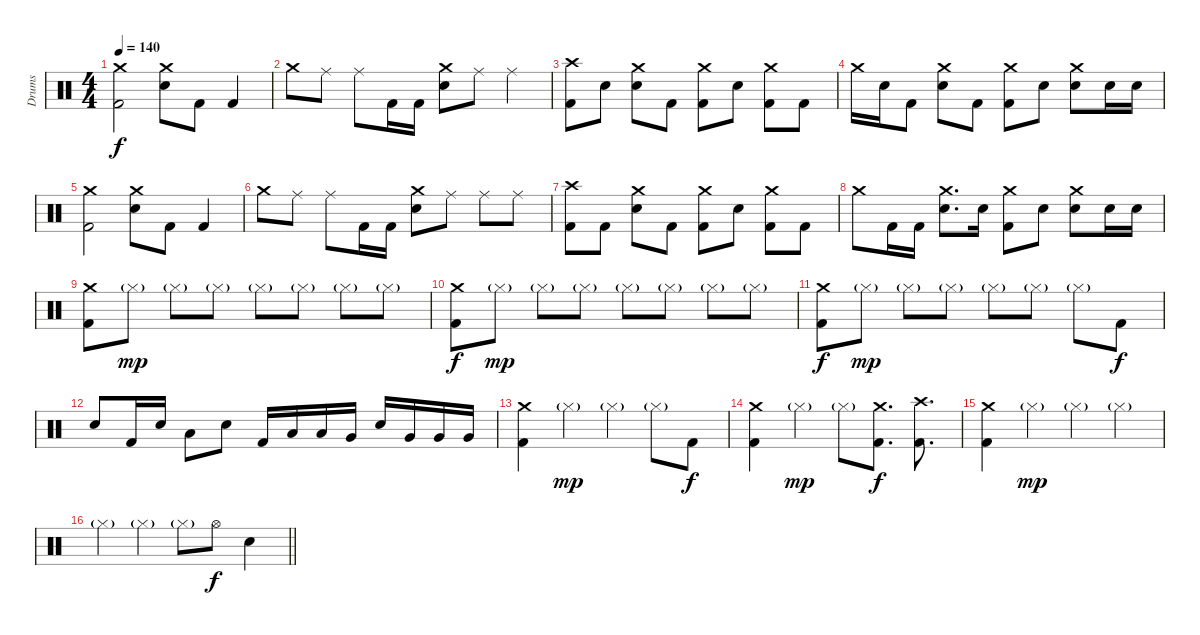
\track ("Drums" "Drums") {instrument percussion}
\staff {score}
\articulation defaults
\ts (4 4)
\tempo 140
\clef neutral
\ks c
("Crash medium (hit)" "Kick (hit) 2").2{dy f} ("Crash medium (hit)" "Electric Snare (hit)").8 "Kick (hit) 2".8 "Kick (hit) 2".4 |
"Crash medium (hit)".8 "Ride (middle)".8 "Ride (middle)".8 "Kick (hit) 2".16 "Kick (hit) 2".16 ("Crash medium (hit)" "Electric Snare (hit)").8 "Ride (middle)".8 "Ride (middle)".4 |
("Crash high (hit)" "Kick (hit) 2").8 "Electric Snare (hit)".8 ("Crash medium (hit)" "Electric Snare (hit)").8 "Kick (hit) 2".8 ("Crash medium (hit)" "Kick (hit) 2").8 "Electric Snare (hit)".8 ("Crash medium (hit)" "Kick (hit) 2").8 "Kick (hit) 2".8 |
"Crash medium (hit)".16 "Electric Snare (hit)".16 "Kick (hit) 2".8 ("Crash medium (hit)" "Electric Snare (hit)").8 "Kick (hit) 2".8 ("Crash medium (hit)" "Kick (hit) 2").8 "Electric Snare (hit)".8 ("Crash medium (hit)" "Electric Snare (hit)").8 "Electric Snare (hit)".16 "Electric Snare (hit)".16 |
("Crash medium (hit)" "Kick (hit) 2").2 ("Crash medium (hit)" "Electric Snare (hit)").8 "Kick (hit) 2".8 "Kick (hit) 2".4 |
"Crash medium (hit)".8 "Ride (middle)".8 "Ride (middle)".8 "Kick (hit) 2".16 "Kick (hit) 2".16 ("Crash medium (hit)" "Electric Snare (hit)").8 "Ride (middle)".8 "Ride (middle)".8 "Ride (middle)".8 |
("Crash high (hit)" "Kick (hit) 2").8 "Kick (hit) 2".8 ("Crash medium (hit)" "Electric Snare (hit)").8 "Kick (hit) 2".8 ("Crash medium (hit)" "Kick (hit) 2").8 "Electric Snare (hit)".8 ("Crash medium (hit)" "Kick (hit) 2").8 "Kick (hit) 2".8 |
"Crash medium (hit)".8 "Kick (hit) 2".16 "Kick (hit) 2".16 ("Crash medium (hit)" "Electric Snare (hit)").8{d} "Electric Snare (hit)".16 ("Crash medium (hit)" "Kick (hit) 2").8 "Electric Snare (hit)".8 ("Crash medium (hit)" "Electric Snare (hit)").8 "Electric Snare (hit)".16 "Electric Snare (hit)".16 |
("Crash medium (hit)" "Kick (hit) 2").8 "Hi-Hat (closed)"{g}.8{dy mp} "Hi-Hat (closed)"{g}.8 "Hi-Hat (closed)"{g}.8 "Hi-Hat (closed)"{g}.8 "Hi-Hat (closed)"{g}.8 "Hi-Hat (closed)"{g}.8 "Hi-Hat (closed)"{g}.8 |
("Crash medium (hit)" "Kick (hit) 2").8{dy f} "Hi-Hat (closed)"{g}.8{dy mp} "Hi-Hat (closed)"{g}.8 "Hi-Hat (closed)"{g}.8 "Hi-Hat (closed)"{g}.8 "Hi-Hat (closed)"{g}.8 "Hi-Hat (closed)"{g}.8 "Hi-Hat (closed)"{g}.8 |
("Crash medium (hit)" "Kick (hit) 2").8{dy f} "Hi-Hat (closed)"{g}.8{dy mp} "Hi-Hat (closed)"{g}.8 "Hi-Hat (closed)"{g}.8 "Hi-Hat (closed)"{g}.8 "Hi-Hat (closed)"{g}.8 "Hi-Hat (closed)"{g}.8 "Kick (hit) 2".8{dy f} |
"Electric Snare (hit)".8 "Kick (hit) 2".16 "Electric Snare (hit)".16 "Low Tom (hit)".8 "Electric Snare (hit)".8 "Kick (hit) 2".16 "Low Tom (hit)".16 "Low Tom (hit)".16 "Very Low Tom (hit)".16 "Electric Snare (hit)".16 "Very Low Tom (hit)".16 "Very Low Tom (hit)".16 "Very Low Tom (hit)".16 |
("Crash medium (hit)" "Kick (hit) 2").4 "Hi-Hat (closed)"{g}.4{dy mp} "Hi-Hat (closed)"{g}.4 "Hi-Hat (closed)"{g}.8 "Kick (hit) 2".8{dy f} |
("Crash medium (hit)" "Kick (hit) 2").4 "Hi-Hat (closed)"{g}.4{dy mp} "Hi-Hat (closed)"{g}.8 ("Crash medium (hit)" "Kick (hit) 2").8{d dy f} ("Crash high (hit)" "Kick (hit) 2").8{d} |
("Crash medium (hit)" "Kick (hit) 2").4 "Hi-Hat (closed)"{g}.4{dy mp} "Hi-Hat (closed)"{g}.4 "Hi-Hat (closed)"{g}.4 |
\barLineRight lightlight "Hi-Hat (closed)"{g}.4 "Hi-Hat (closed)"{g}.4 "Hi-Hat (closed)"{g}.8 "Hi-Hat (open)".8{dy f} "Electric Snare (hit)".4
